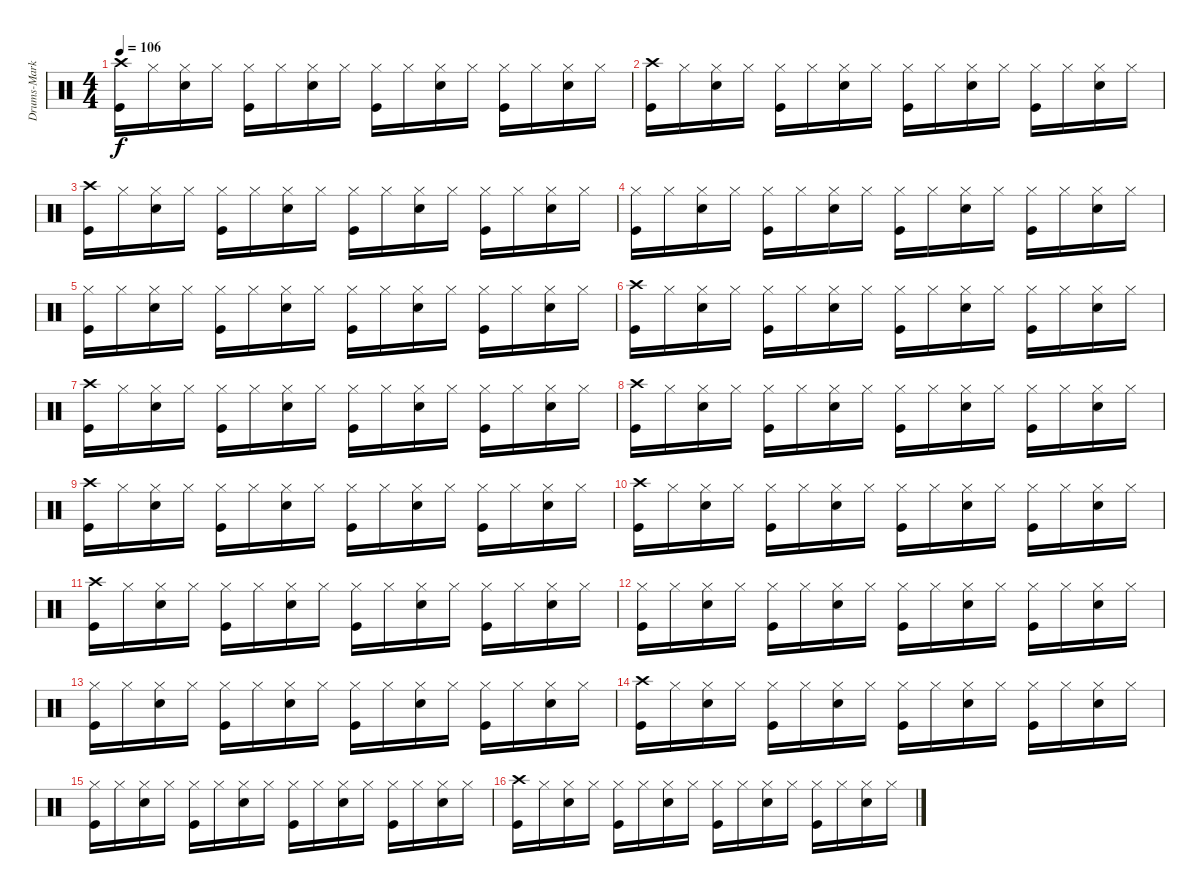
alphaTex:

\track ("Drums-Marky Ramone" "Drums-Mark") {instrument percussion}
\staff {score}
\articulation defaults
\ts (4 4)
\tempo 106
\clef neutral
\ks c
("Crash high (hit)" "Kick (hit)").16{dy f} "Hi-Hat (closed)".16 ("Hi-Hat (closed)" "Electric Snare (hit)").16 "Hi-Hat (closed)".16 ("Hi-Hat (closed)" "Kick (hit)").16 "Hi-Hat (closed)".16 ("Hi-Hat (closed)" "Electric Snare (hit)").16 "Hi-Hat (closed)".16 ("Hi-Hat (closed)" "Kick (hit)").16 "Hi-Hat (closed)".16 ("Hi-Hat (closed)" "Electric Snare (hit)").16 "Hi-Hat (closed)".16 ("Hi-Hat (closed)" "Kick (hit)").16 "Hi-Hat (closed)".16 ("Hi-Hat (closed)" "Electric Snare (hit)").16 "Hi-Hat (closed)".16 |
("Crash high (hit)" "Kick (hit)").16 "Hi-Hat (closed)".16 ("Hi-Hat (closed)" "Electric Snare (hit)").16 "Hi-Hat (closed)".16 ("Hi-Hat (closed)" "Kick (hit)").16 "Hi-Hat (closed)".16 ("Hi-Hat (closed)" "Electric Snare (hit)").16 "Hi-Hat (closed)".16 ("Hi-Hat (closed)" "Kick (hit)").16 "Hi-Hat (closed)".16 ("Hi-Hat (closed)" "Electric Snare (hit)").16 "Hi-Hat (closed)".16 ("Hi-Hat (closed)" "Kick (hit)").16 "Hi-Hat (closed)".16 ("Hi-Hat (closed)" "Electric Snare (hit)").16 "Hi-Hat (closed)".16 |
("Crash high (hit)" "Kick (hit)").16 "Hi-Hat (closed)".16 ("Hi-Hat (closed)" "Electric Snare (hit)").16 "Hi-Hat (closed)".16 ("Hi-Hat (closed)" "Kick (hit)").16 "Hi-Hat (closed)".16 ("Hi-Hat (closed)" "Electric Snare (hit)").16 "Hi-Hat (closed)".16 ("Hi-Hat (closed)" "Kick (hit)").16 "Hi-Hat (closed)".16 ("Hi-Hat (closed)" "Electric Snare (hit)").16 "Hi-Hat (closed)".16 ("Hi-Hat (closed)" "Kick (hit)").16 "Hi-Hat (closed)".16 ("Hi-Hat (closed)" "Electric Snare (hit)").16 "Hi-Hat (closed)".16 |
("Hi-Hat (closed)" "Kick (hit)").16 "Hi-Hat (closed)".16 ("Hi-Hat (closed)" "Electric Snare (hit)").16 "Hi-Hat (closed)".16 ("Hi-Hat (closed)" "Kick (hit)").16 "Hi-Hat (closed)".16 ("Hi-Hat (closed)" "Electric Snare (hit)").16 "Hi-Hat (closed)".16 ("Hi-Hat (closed)" "Kick (hit)").16 "Hi-Hat (closed)".16 ("Hi-Hat (closed)" "Electric Snare (hit)").16 "Hi-Hat (closed)".16 ("Hi-Hat (closed)" "Kick (hit)").16 "Hi-Hat (closed)".16 ("Hi-Hat (closed)" "Electric Snare (hit)").16 "Hi-Hat (closed)".16 |
("Hi-Hat (closed)" "Kick (hit)").16 "Hi-Hat (closed)".16 ("Hi-Hat (closed)" "Electric Snare (hit)").16 "Hi-Hat (closed)".16 ("Hi-Hat (closed)" "Kick (hit)").16 "Hi-Hat (closed)".16 ("Hi-Hat (closed)" "Electric Snare (hit)").16 "Hi-Hat (closed)".16 ("Hi-Hat (closed)" "Kick (hit)").16 "Hi-Hat (closed)".16 ("Hi-Hat (closed)" "Electric Snare (hit)").16 "Hi-Hat (closed)".16 ("Hi-Hat (closed)" "Kick (hit)").16 "Hi-Hat (closed)".16 ("Hi-Hat (closed)" "Electric Snare (hit)").16 "Hi-Hat (closed)".16 |
("Crash high (hit)" "Kick (hit)").16 "Hi-Hat (closed)".16 ("Hi-Hat (closed)" "Electric Snare (hit)").16 "Hi-Hat (closed)".16 ("Hi-Hat (closed)" "Kick (hit)").16 "Hi-Hat (closed)".16 ("Hi-Hat (closed)" "Electric Snare (hit)").16 "Hi-Hat (closed)".16 ("Hi-Hat (closed)" "Kick (hit)").16 "Hi-Hat (closed)".16 ("Hi-Hat (closed)" "Electric Snare (hit)").16 "Hi-Hat (closed)".16 ("Hi-Hat (closed)" "Kick (hit)").16 "Hi-Hat (closed)".16 ("Hi-Hat (closed)" "Electric Snare (hit)").16 "Hi-Hat (closed)".16 |
("Crash high (hit)" "Kick (hit)").16 "Hi-Hat (closed)".16 ("Hi-Hat (closed)" "Electric Snare (hit)").16 "Hi-Hat (closed)".16 ("Hi-Hat (closed)" "Kick (hit)").16 "Hi-Hat (closed)".16 ("Hi-Hat (closed)" "Electric Snare (hit)").16 "Hi-Hat (closed)".16 ("Hi-Hat (closed)" "Kick (hit)").16 "Hi-Hat (closed)".16 ("Hi-Hat (closed)" "Electric Snare (hit)").16 "Hi-Hat (closed)".16 ("Hi-Hat (closed)" "Kick (hit)").16 "Hi-Hat (closed)".16 ("Hi-Hat (closed)" "Electric Snare (hit)").16 "Hi-Hat (closed)".16 |
("Crash high (hit)" "Kick (hit)").16 "Hi-Hat (closed)".16 ("Hi-Hat (closed)" "Electric Snare (hit)").16 "Hi-Hat (closed)".16 ("Hi-Hat (closed)" "Kick (hit)").16 "Hi-Hat (closed)".16 ("Hi-Hat (closed)" "Electric Snare (hit)").16 "Hi-Hat (closed)".16 ("Hi-Hat (closed)" "Kick (hit)").16 "Hi-Hat (closed)".16 ("Hi-Hat (closed)" "Electric Snare (hit)").16 "Hi-Hat (closed)".16 ("Hi-Hat (closed)" "Kick (hit)").16 "Hi-Hat (closed)".16 ("Hi-Hat (closed)" "Electric Snare (hit)").16 "Hi-Hat (closed)".16 |
("Crash high (hit)" "Kick (hit)").16 "Hi-Hat (closed)".16 ("Hi-Hat (closed)" "Electric Snare (hit)").16 "Hi-Hat (closed)".16 ("Hi-Hat (closed)" "Kick (hit)").16 "Hi-Hat (closed)".16 ("Hi-Hat (closed)" "Electric Snare (hit)").16 "Hi-Hat (closed)".16 ("Hi-Hat (closed)" "Kick (hit)").16 "Hi-Hat (closed)".16 ("Hi-Hat (closed)" "Electric Snare (hit)").16 "Hi-Hat (closed)".16 ("Hi-Hat (closed)" "Kick (hit)").16 "Hi-Hat (closed)".16 ("Hi-Hat (closed)" "Electric Snare (hit)").16 "Hi-Hat (closed)".16 |
("Crash high (hit)" "Kick (hit)").16 "Hi-Hat (closed)".16 ("Hi-Hat (closed)" "Electric Snare (hit)").16 "Hi-Hat (closed)".16 ("Hi-Hat (closed)" "Kick (hit)").16 "Hi-Hat (closed)".16 ("Hi-Hat (closed)" "Electric Snare (hit)").16 "Hi-Hat (closed)".16 ("Hi-Hat (closed)" "Kick (hit)").16 "Hi-Hat (closed)".16 ("Hi-Hat (closed)" "Electric Snare (hit)").16 "Hi-Hat (closed)".16 ("Hi-Hat (closed)" "Kick (hit)").16 "Hi-Hat (closed)".16 ("Hi-Hat (closed)" "Electric Snare (hit)").16 "Hi-Hat (closed)".16 |
("Crash high (hit)" "Kick (hit)").16 "Hi-Hat (closed)".16 ("Hi-Hat (closed)" "Electric Snare (hit)").16 "Hi-Hat (closed)".16 ("Hi-Hat (closed)" "Kick (hit)").16 "Hi-Hat (closed)".16 ("Hi-Hat (closed)" "Electric Snare (hit)").16 "Hi-Hat (closed)".16 ("Hi-Hat (closed)" "Kick (hit)").16 "Hi-Hat (closed)".16 ("Hi-Hat (closed)" "Electric Snare (hit)").16 "Hi-Hat (closed)".16 ("Hi-Hat (closed)" "Kick (hit)").16 "Hi-Hat (closed)".16 ("Hi-Hat (closed)" "Electric Snare (hit)").16 "Hi-Hat (closed)".16 |
("Hi-Hat (closed)" "Kick (hit)").16 "Hi-Hat (closed)".16 ("Hi-Hat (closed)" "Electric Snare (hit)").16 "Hi-Hat (closed)".16 ("Hi-Hat (closed)" "Kick (hit)").16 "Hi-Hat (closed)".16 ("Hi-Hat (closed)" "Electric Snare (hit)").16 "Hi-Hat (closed)".16 ("Hi-Hat (closed)" "Kick (hit)").16 "Hi-Hat (closed)".16 ("Hi-Hat (closed)" "Electric Snare (hit)").16 "Hi-Hat (closed)".16 ("Hi-Hat (closed)" "Kick (hit)").16 "Hi-Hat (closed)".16 ("Hi-Hat (closed)" "Electric Snare (hit)").16 "Hi-Hat (closed)".16 |
("Hi-Hat (closed)" "Kick (hit)").16 "Hi-Hat (closed)".16 ("Hi-Hat (closed)" "Electric Snare (hit)").16 "Hi-Hat (closed)".16 ("Hi-Hat (closed)" "Kick (hit)").16 "Hi-Hat (closed)".16 ("Hi-Hat (closed)" "Electric Snare (hit)").16 "Hi-Hat (closed)".16 ("Hi-Hat (closed)" "Kick (hit)").16 "Hi-Hat (closed)".16 ("Hi-Hat (closed)" "Electric Snare (hit)").16 "Hi-Hat (closed)".16 ("Hi-Hat (closed)" "Kick (hit)").16 "Hi-Hat (closed)".16 ("Hi-Hat (closed)" "Electric Snare (hit)").16 "Hi-Hat (closed)".16 |
("Crash high (hit)" "Kick (hit)").16 "Hi-Hat (closed)".16 ("Hi-Hat (closed)" "Electric Snare (hit)").16 "Hi-Hat (closed)".16 ("Hi-Hat (closed)" "Kick (hit)").16 "Hi-Hat (closed)".16 ("Hi-Hat (closed)" "Electric Snare (hit)").16 "Hi-Hat (closed)".16 ("Hi-Hat (closed)" "Kick (hit)").16 "Hi-Hat (closed)".16 ("Hi-Hat (closed)" "Electric Snare (hit)").16 "Hi-Hat (closed)".16 ("Hi-Hat (closed)" "Kick (hit)").16 "Hi-Hat (closed)".16 ("Hi-Hat (closed)" "Electric Snare (hit)").16 "Hi-Hat (closed)".16 |
("Hi-Hat (closed)" "Kick (hit)").16 "Hi-Hat (closed)".16 ("Hi-Hat (closed)" "Electric Snare (hit)").16 "Hi-Hat (closed)".16 ("Hi-Hat (closed)" "Kick (hit)").16 "Hi-Hat (closed)".16 ("Hi-Hat (closed)" "Electric Snare (hit)").16 "Hi-Hat (closed)".16 ("Hi-Hat (closed)" "Kick (hit)").16 "Hi-Hat (closed)".16 ("Hi-Hat (closed)" "Electric Snare (hit)").16 "Hi-Hat (closed)".16 ("Hi-Hat (closed)" "Kick (hit)").16 "Hi-Hat (closed)".16 ("Hi-Hat (closed)" "Electric Snare (hit)").16 "Hi-Hat (closed)".16 |
("Crash high (hit)" "Kick (hit)").16 "Hi-Hat (closed)".16 ("Hi-Hat (closed)" "Electric Snare (hit)").16 "Hi-Hat (closed)".16 ("Hi-Hat (closed)" "Kick (hit)").16 "Hi-Hat (closed)".16 ("Hi-Hat (closed)" "Electric Snare (hit)").16 "Hi-Hat (closed)".16 ("Hi-Hat (closed)" "Kick (hit)").16 "Hi-Hat (closed)".16 ("Hi-Hat (closed)" "Electric Snare (hit)").16 "Hi-Hat (closed)".16 ("Hi-Hat (closed)" "Kick (hit)").16 "Hi-Hat (closed)".16 ("Hi-Hat (closed)" "Electric Snare (hit)").16 "Hi-Hat (closed)".16
